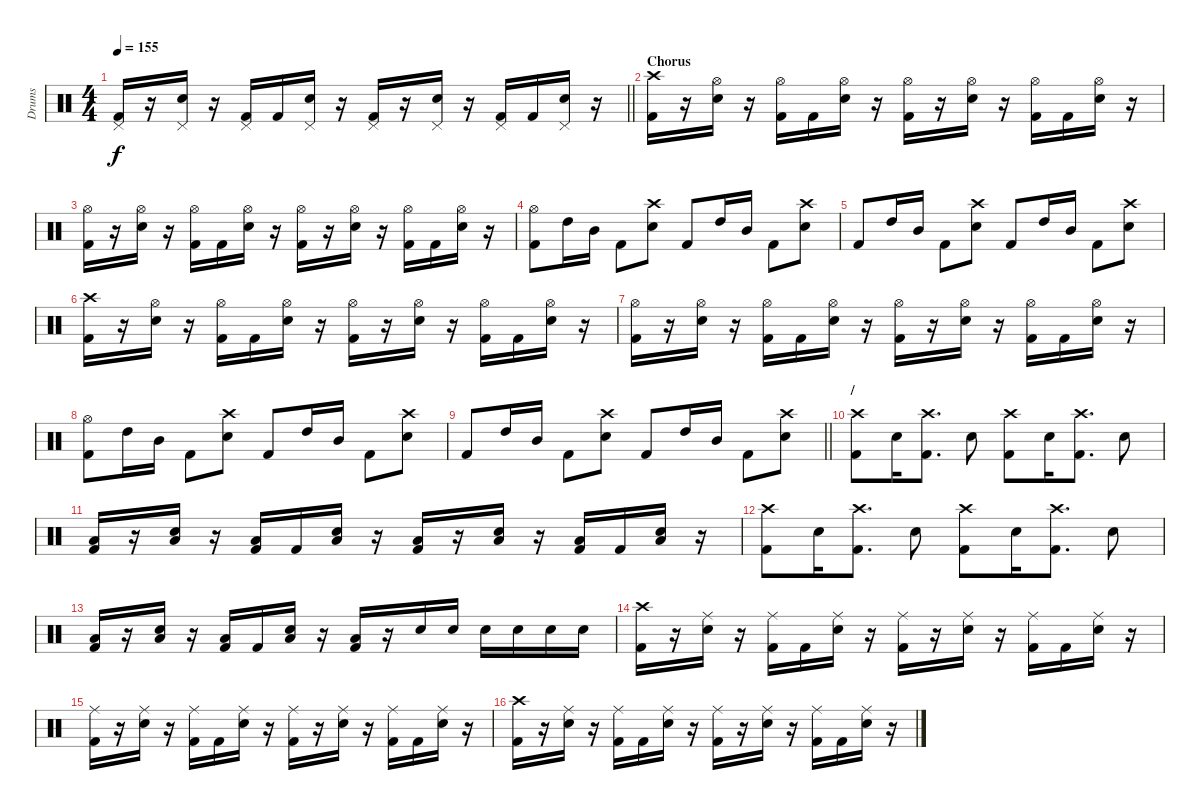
\track ("Drums" "Drums") {instrument percussion}
\staff {score}
\articulation defaults
\ts (4 4)
\tempo 155
\clef neutral
\barLineRight lightlight
\ks c
("Pedal Hi-Hat (hit)" "Kick (hit) 2").16{dy f} r.16 ("Pedal Hi-Hat (hit)" "Electric Snare (hit)").16 r.16 ("Pedal Hi-Hat (hit)" "Kick (hit) 2").16 "Kick (hit) 2".16 ("Pedal Hi-Hat (hit)" "Electric Snare (hit)").16 r.16 ("Pedal Hi-Hat (hit)" "Kick (hit) 2").16 r.16 ("Pedal Hi-Hat (hit)" "Electric Snare (hit)").16 r.16 ("Pedal Hi-Hat (hit)" "Kick (hit) 2").16 "Kick (hit) 2".16 ("Pedal Hi-Hat (hit)" "Electric Snare (hit)").16 r.16 |
\section ("" "Chorus")
("Crash high (hit)" "Kick (hit) 2").16 r.16 ("Hi-Hat (open)" "Electric Snare (hit)").16 r.16 ("Hi-Hat (open)" "Kick (hit) 2").16 "Kick (hit) 2".16 ("Hi-Hat (open)" "Electric Snare (hit)").16 r.16 ("Hi-Hat (open)" "Kick (hit) 2").16 r.16 ("Hi-Hat (open)" "Electric Snare (hit)").16 r.16 ("Hi-Hat (open)" "Kick (hit) 2").16 "Kick (hit) 2".16 ("Hi-Hat (open)" "Electric Snare (hit)").16 r.16 |
("Hi-Hat (open)" "Kick (hit) 2").16 r.16 ("Hi-Hat (open)" "Electric Snare (hit)").16 r.16 ("Hi-Hat (open)" "Kick (hit) 2").16 "Kick (hit) 2".16 ("Hi-Hat (open)" "Electric Snare (hit)").16 r.16 ("Hi-Hat (open)" "Kick (hit) 2").16 r.16 ("Hi-Hat (open)" "Electric Snare (hit)").16 r.16 ("Hi-Hat (open)" "Kick (hit) 2").16 "Kick (hit) 2".16 ("Hi-Hat (open)" "Electric Snare (hit)").16 r.16 |
("Hi-Hat (open)" "Kick (hit) 2").8 "High Tom (hit)".16 "Mid Tom (hit)".16 "Kick (hit) 2".8 ("Crash high (hit)" "Electric Snare (hit)").8 "Kick (hit) 2".8 "High Tom (hit)".16 "Mid Tom (hit)".16 "Kick (hit) 2".8 ("Crash high (hit)" "Electric Snare (hit)").8 |
"Kick (hit) 2".8 "High Tom (hit)".16 "Mid Tom (hit)".16 "Kick (hit) 2".8 ("Crash high (hit)" "Electric Snare (hit)").8 "Kick (hit) 2".8 "High Tom (hit)".16 "Mid Tom (hit)".16 "Kick (hit) 2".8 ("Crash high (hit)" "Electric Snare (hit)").8 |
("Crash high (hit)" "Kick (hit) 2").16 r.16 ("Hi-Hat (open)" "Electric Snare (hit)").16 r.16 ("Hi-Hat (open)" "Kick (hit) 2").16 "Kick (hit) 2".16 ("Hi-Hat (open)" "Electric Snare (hit)").16 r.16 ("Hi-Hat (open)" "Kick (hit) 2").16 r.16 ("Hi-Hat (open)" "Electric Snare (hit)").16 r.16 ("Hi-Hat (open)" "Kick (hit) 2").16 "Kick (hit) 2".16 ("Hi-Hat (open)" "Electric Snare (hit)").16 r.16 |
("Hi-Hat (open)" "Kick (hit) 2").16 r.16 ("Hi-Hat (open)" "Electric Snare (hit)").16 r.16 ("Hi-Hat (open)" "Kick (hit) 2").16 "Kick (hit) 2".16 ("Hi-Hat (open)" "Electric Snare (hit)").16 r.16 ("Hi-Hat (open)" "Kick (hit) 2").16 r.16 ("Hi-Hat (open)" "Electric Snare (hit)").16 r.16 ("Hi-Hat (open)" "Kick (hit) 2").16 "Kick (hit) 2".16 ("Hi-Hat (open)" "Electric Snare (hit)").16 r.16 |
("Hi-Hat (open)" "Kick (hit) 2").8 "High Tom (hit)".16 "Mid Tom (hit)".16 "Kick (hit) 2".8 ("Crash high (hit)" "Electric Snare (hit)").8 "Kick (hit) 2".8 "High Tom (hit)".16 "Mid Tom (hit)".16 "Kick (hit) 2".8 ("Crash high (hit)" "Electric Snare (hit)").8 |
\barLineRight lightlight "Kick (hit) 2".8 "High Tom (hit)".16 "Mid Tom (hit)".16 "Kick (hit) 2".8
("Crash high (hit)" "Electric Snare (hit)").8 "Kick (hit) 2".8 "High Tom (hit)".16 "Mid Tom (hit)".16 "Kick (hit) 2".8 ("Crash high (hit)" "Electric Snare (hit)").8 |
\section ("" "/")
("Crash high (hit)" "Kick (hit) 2").8 "Electric Snare (hit)".16 ("Crash high (hit)" "Kick (hit) 2").8{d} "Electric Snare (hit)".8 ("Crash high (hit)" "Kick (hit) 2").8 "Electric Snare (hit)".16 ("Crash high (hit)" "Kick (hit) 2").8{d} "Electric Snare (hit)".8 |
("Low Tom (hit)" "Kick (hit) 2").16 r.16 ("Low Tom (hit)" "Electric Snare (hit)").16 r.16 ("Low Tom (hit)" "Kick (hit) 2").16 "Kick (hit) 2".16 ("Low Tom (hit)" "Electric Snare (hit)").16 r.16 ("Low Tom (hit)" "Kick (hit) 2").16 r.16 ("Low Tom (hit)" "Electric Snare (hit)").16 r.16 ("Low Tom (hit)" "Kick (hit) 2").16 "Kick (hit) 2".16 ("Low Tom (hit)" "Electric Snare (hit)").16 r.16 |
("Crash high (hit)" "Kick (hit) 2").8 "Electric Snare (hit)".16 ("Crash high (hit)" "Kick (hit) 2").8{d} "Electric Snare (hit)".8 ("Crash high (hit)" "Kick (hit) 2").8 "Electric Snare (hit)".16 ("Crash high (hit)" "Kick (hit) 2").8{d} "Electric Snare (hit)".8 |
("Low Tom (hit)" "Kick (hit) 2").16 r.16 ("Low Tom (hit)" "Electric Snare (hit)").16 r.16 ("Low Tom (hit)" "Kick (hit) 2").16 "Kick (hit) 2".16 ("Low Tom (hit)" "Electric Snare (hit)").16 r.16 ("Low Tom (hit)" "Kick (hit) 2").16 r.16 "Electric Snare (hit)".16 "Electric Snare (hit)".16 "Electric Snare (hit)".16 "Electric Snare (hit)".16 "Electric Snare (hit)".16 "Electric Snare (hit)".16 |
("Crash high (hit)" "Kick (hit) 2").16 r.16 ("Ride (middle)" "Electric Snare (hit)").16 r.16 ("Ride (middle)" "Kick (hit) 2").16 "Kick (hit) 2".16 ("Ride (middle)" "Electric Snare (hit)").16 r.16 ("Ride (middle)" "Kick (hit) 2").16 r.16 ("Ride (middle)" "Electric Snare (hit)").16 r.16 ("Ride (middle)" "Kick (hit) 2").16 "Kick (hit) 2".16 ("Ride (middle)" "Electric Snare (hit)").16 r.16 |
("Ride (middle)" "Kick (hit) 2").16 r.16 ("Ride (middle)" "Electric Snare (hit)").16 r.16 ("Ride (middle)" "Kick (hit) 2").16 "Kick (hit) 2".16 ("Ride (middle)" "Electric Snare (hit)").16 r.16 ("Ride (middle)" "Kick (hit) 2").16 r.16 ("Ride (middle)" "Electric Snare (hit)").16 r.16 ("Ride (middle)" "Kick (hit) 2").16 "Kick (hit) 2".16 ("Ride (middle)" "Electric Snare (hit)").16 r.16 |
("Crash high (hit)" "Kick (hit) 2").16 r.16 ("Ride (middle)" "Electric Snare (hit)").16 r.16 ("Ride (middle)" "Kick (hit) 2").16 "Kick (hit) 2".16 ("Ride (middle)" "Electric Snare (hit)").16 r.16 ("Ride (middle)" "Kick (hit) 2").16 r.16 ("Ride (middle)" "Electric Snare (hit)").16 r.16 ("Ride (middle)" "Kick (hit) 2").16 "Kick (hit) 2".16 ("Ride (middle)" "Electric Snare (hit)").16 r.16
